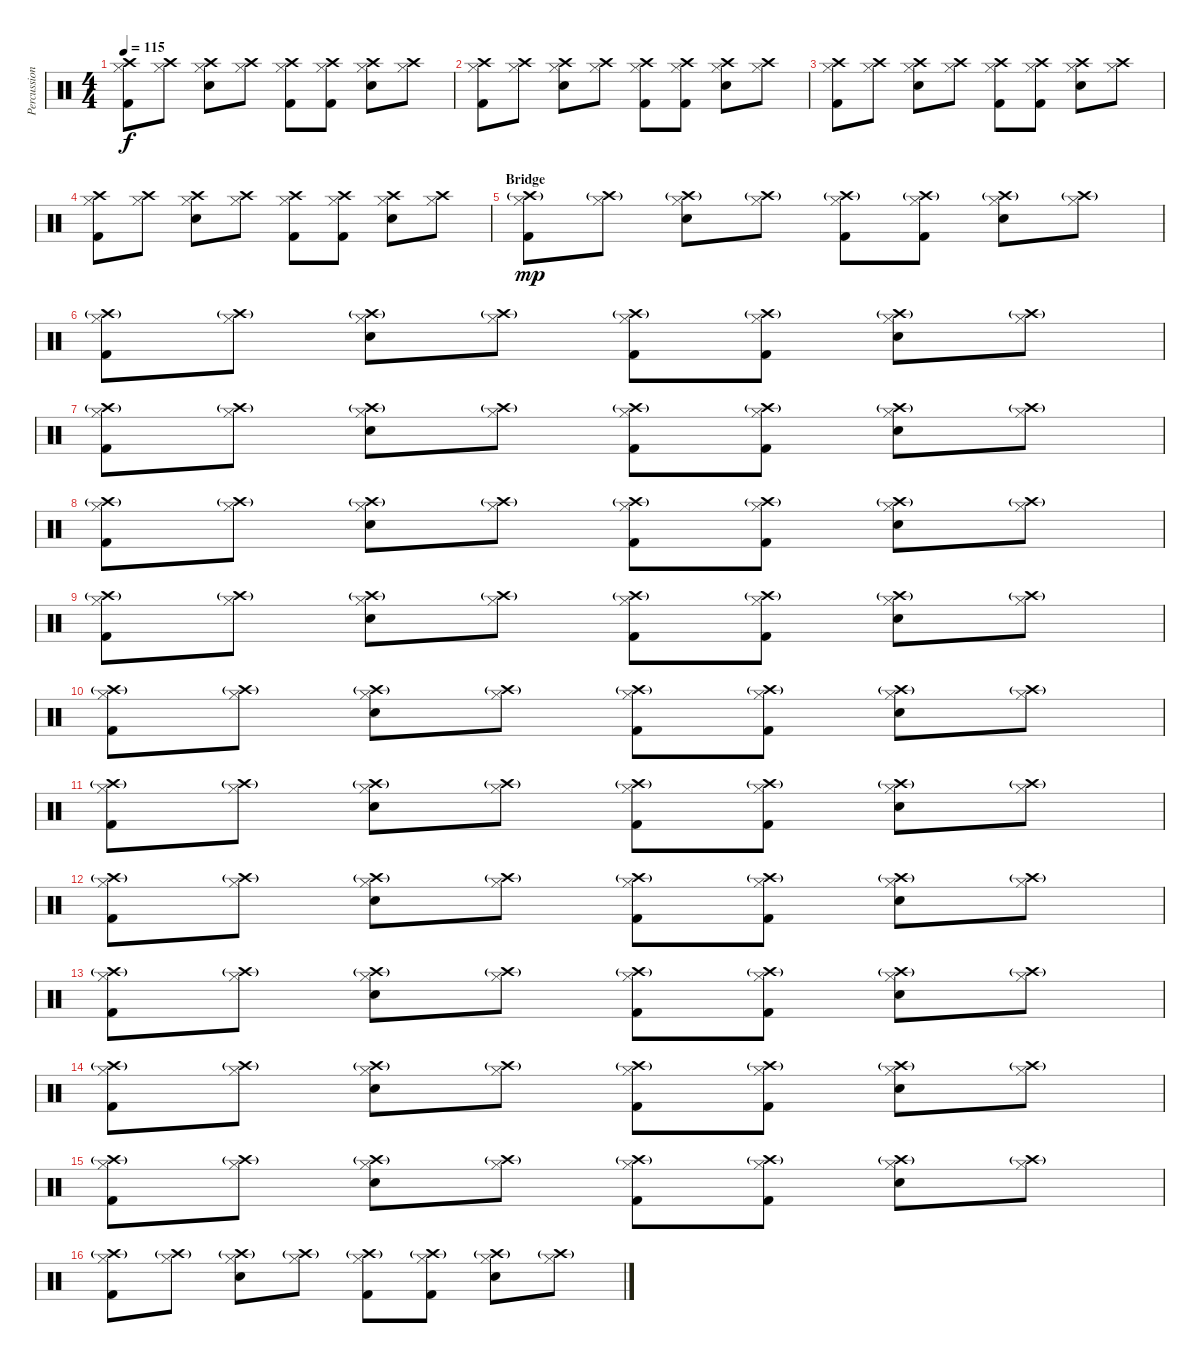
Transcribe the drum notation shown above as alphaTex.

\track ("Percussions" "Percussion") {instrument percussion}
\staff {score}
\articulation defaults
\ts (4 4)
\tempo 115
\clef neutral
\ks c
("Crash high (hit)" "Hi-Hat (closed)" "Kick (hit) 2").8{dy f} ("Crash high (hit)" "Hi-Hat (closed)").8 ("Crash high (hit)" "Hi-Hat (closed)" "Electric Snare (hit)").8 ("Crash high (hit)" "Hi-Hat (closed)").8 ("Crash high (hit)" "Hi-Hat (closed)" "Kick (hit) 2").8 ("Crash high (hit)" "Hi-Hat (closed)" "Kick (hit) 2").8 ("Crash high (hit)" "Hi-Hat (closed)" "Electric Snare (hit)").8 ("Crash high (hit)" "Hi-Hat (closed)").8 |
("Crash high (hit)" "Hi-Hat (closed)" "Kick (hit) 2").8 ("Crash high (hit)" "Hi-Hat (closed)").8 ("Crash high (hit)" "Hi-Hat (closed)" "Electric Snare (hit)").8 ("Crash high (hit)" "Hi-Hat (closed)").8 ("Crash high (hit)" "Hi-Hat (closed)" "Kick (hit) 2").8 ("Crash high (hit)" "Hi-Hat (closed)" "Kick (hit) 2").8 ("Crash high (hit)" "Hi-Hat (closed)" "Electric Snare (hit)").8 ("Crash high (hit)" "Hi-Hat (closed)").8 |
("Crash high (hit)" "Hi-Hat (closed)" "Kick (hit) 2").8 ("Crash high (hit)" "Hi-Hat (closed)").8 ("Crash high (hit)" "Hi-Hat (closed)" "Electric Snare (hit)").8 ("Crash high (hit)" "Hi-Hat (closed)").8 ("Crash high (hit)" "Hi-Hat (closed)" "Kick (hit) 2").8 ("Crash high (hit)" "Hi-Hat (closed)" "Kick (hit) 2").8 ("Crash high (hit)" "Hi-Hat (closed)" "Electric Snare (hit)").8 ("Crash high (hit)" "Hi-Hat (closed)").8 |
("Crash high (hit)" "Hi-Hat (closed)" "Kick (hit) 2").8 ("Crash high (hit)" "Hi-Hat (closed)").8 ("Crash high (hit)" "Hi-Hat (closed)" "Electric Snare (hit)").8 ("Crash high (hit)" "Hi-Hat (closed)").8 ("Crash high (hit)" "Hi-Hat (closed)" "Kick (hit) 2").8 ("Crash high (hit)" "Hi-Hat (closed)" "Kick (hit) 2").8 ("Crash high (hit)" "Hi-Hat (closed)" "Electric Snare (hit)").8 ("Crash high (hit)" "Hi-Hat (closed)").8 |
\section ("" "Bridge")
("Crash high (hit)"{g} "Hi-Hat (closed)" "Kick (hit) 2").8{dy mp} ("Crash high (hit)"{g} "Hi-Hat (closed)").8 ("Crash high (hit)"{g} "Hi-Hat (closed)" "Electric Snare (hit)").8 ("Crash high (hit)"{g} "Hi-Hat (closed)").8 ("Crash high (hit)"{g} "Hi-Hat (closed)" "Kick (hit) 2").8 ("Crash high (hit)"{g} "Hi-Hat (closed)" "Kick (hit) 2").8 ("Crash high (hit)"{g} "Hi-Hat (closed)" "Electric Snare (hit)").8 ("Crash high (hit)"{g} "Hi-Hat (closed)").8 |
("Crash high (hit)"{g} "Hi-Hat (closed)" "Kick (hit) 2").8 ("Crash high (hit)"{g} "Hi-Hat (closed)").8 ("Crash high (hit)"{g} "Hi-Hat (closed)" "Electric Snare (hit)").8 ("Crash high (hit)"{g} "Hi-Hat (closed)").8 ("Crash high (hit)"{g} "Hi-Hat (closed)" "Kick (hit) 2").8 ("Crash high (hit)"{g} "Hi-Hat (closed)" "Kick (hit) 2").8 ("Crash high (hit)"{g} "Hi-Hat (closed)" "Electric Snare (hit)").8 ("Crash high (hit)"{g} "Hi-Hat (closed)").8 |
("Crash high (hit)"{g} "Hi-Hat (closed)" "Kick (hit) 2").8 ("Crash high (hit)"{g} "Hi-Hat (closed)").8 ("Crash high (hit)"{g} "Hi-Hat (closed)" "Electric Snare (hit)").8 ("Crash high (hit)"{g} "Hi-Hat (closed)").8 ("Crash high (hit)"{g} "Hi-Hat (closed)" "Kick (hit) 2").8 ("Crash high (hit)"{g} "Hi-Hat (closed)" "Kick (hit) 2").8 ("Crash high (hit)"{g} "Hi-Hat (closed)" "Electric Snare (hit)").8 ("Crash high (hit)"{g} "Hi-Hat (closed)").8 |
("Crash high (hit)"{g} "Hi-Hat (closed)" "Kick (hit) 2").8 ("Crash high (hit)"{g} "Hi-Hat (closed)").8 ("Crash high (hit)"{g} "Hi-Hat (closed)" "Electric Snare (hit)").8 ("Crash high (hit)"{g} "Hi-Hat (closed)").8 ("Crash high (hit)"{g} "Hi-Hat (closed)" "Kick (hit) 2").8 ("Crash high (hit)"{g} "Hi-Hat (closed)" "Kick (hit) 2").8 ("Crash high (hit)"{g} "Hi-Hat (closed)" "Electric Snare (hit)").8 ("Crash high (hit)"{g} "Hi-Hat (closed)").8 |
("Crash high (hit)"{g} "Hi-Hat (closed)" "Kick (hit) 2").8 ("Crash high (hit)"{g} "Hi-Hat (closed)").8 ("Crash high (hit)"{g} "Hi-Hat (closed)" "Electric Snare (hit)").8 ("Crash high (hit)"{g} "Hi-Hat (closed)").8 ("Crash high (hit)"{g} "Hi-Hat (closed)" "Kick (hit) 2").8 ("Crash high (hit)"{g} "Hi-Hat (closed)" "Kick (hit) 2").8 ("Crash high (hit)"{g} "Hi-Hat (closed)" "Electric Snare (hit)").8 ("Crash high (hit)"{g} "Hi-Hat (closed)").8 |
("Crash high (hit)"{g} "Hi-Hat (closed)" "Kick (hit) 2").8 ("Crash high (hit)"{g} "Hi-Hat (closed)").8 ("Crash high (hit)"{g} "Hi-Hat (closed)" "Electric Snare (hit)").8 ("Crash high (hit)"{g} "Hi-Hat (closed)").8 ("Crash high (hit)"{g} "Hi-Hat (closed)" "Kick (hit) 2").8 ("Crash high (hit)"{g} "Hi-Hat (closed)" "Kick (hit) 2").8 ("Crash high (hit)"{g} "Hi-Hat (closed)" "Electric Snare (hit)").8 ("Crash high (hit)"{g} "Hi-Hat (closed)").8 |
("Crash high (hit)"{g} "Hi-Hat (closed)" "Kick (hit) 2").8 ("Crash high (hit)"{g} "Hi-Hat (closed)").8 ("Crash high (hit)"{g} "Hi-Hat (closed)" "Electric Snare (hit)").8 ("Crash high (hit)"{g} "Hi-Hat (closed)").8 ("Crash high (hit)"{g} "Hi-Hat (closed)" "Kick (hit) 2").8 ("Crash high (hit)"{g} "Hi-Hat (closed)" "Kick (hit) 2").8 ("Crash high (hit)"{g} "Hi-Hat (closed)" "Electric Snare (hit)").8 ("Crash high (hit)"{g} "Hi-Hat (closed)").8 |
("Crash high (hit)"{g} "Hi-Hat (closed)" "Kick (hit) 2").8 ("Crash high (hit)"{g} "Hi-Hat (closed)").8 ("Crash high (hit)"{g} "Hi-Hat (closed)" "Electric Snare (hit)").8 ("Crash high (hit)"{g} "Hi-Hat (closed)").8 ("Crash high (hit)"{g} "Hi-Hat (closed)" "Kick (hit) 2").8 ("Crash high (hit)"{g} "Hi-Hat (closed)" "Kick (hit) 2").8 ("Crash high (hit)"{g} "Hi-Hat (closed)" "Electric Snare (hit)").8 ("Crash high (hit)"{g} "Hi-Hat (closed)").8 |
("Crash high (hit)"{g} "Hi-Hat (closed)" "Kick (hit) 2").8 ("Crash high (hit)"{g} "Hi-Hat (closed)").8 ("Crash high (hit)"{g} "Hi-Hat (closed)" "Electric Snare (hit)").8 ("Crash high (hit)"{g} "Hi-Hat (closed)").8 ("Crash high (hit)"{g} "Hi-Hat (closed)" "Kick (hit) 2").8 ("Crash high (hit)"{g} "Hi-Hat (closed)" "Kick (hit) 2").8 ("Crash high (hit)"{g} "Hi-Hat (closed)" "Electric Snare (hit)").8 ("Crash high (hit)"{g} "Hi-Hat (closed)").8 |
("Crash high (hit)"{g} "Hi-Hat (closed)" "Kick (hit) 2").8 ("Crash high (hit)"{g} "Hi-Hat (closed)").8 ("Crash high (hit)"{g} "Hi-Hat (closed)" "Electric Snare (hit)").8 ("Crash high (hit)"{g} "Hi-Hat (closed)").8 ("Crash high (hit)"{g} "Hi-Hat (closed)" "Kick (hit) 2").8 ("Crash high (hit)"{g} "Hi-Hat (closed)" "Kick (hit) 2").8 ("Crash high (hit)"{g} "Hi-Hat (closed)" "Electric Snare (hit)").8 ("Crash high (hit)"{g} "Hi-Hat (closed)").8 |
("Crash high (hit)"{g} "Hi-Hat (closed)" "Kick (hit) 2").8 ("Crash high (hit)"{g} "Hi-Hat (closed)").8 ("Crash high (hit)"{g} "Hi-Hat (closed)" "Electric Snare (hit)").8 ("Crash high (hit)"{g} "Hi-Hat (closed)").8 ("Crash high (hit)"{g} "Hi-Hat (closed)" "Kick (hit) 2").8 ("Crash high (hit)"{g} "Hi-Hat (closed)" "Kick (hit) 2").8 ("Crash high (hit)"{g} "Hi-Hat (closed)" "Electric Snare (hit)").8 ("Crash high (hit)"{g} "Hi-Hat (closed)").8 |
("Crash high (hit)"{g} "Hi-Hat (closed)" "Kick (hit) 2").8 ("Crash high (hit)"{g} "Hi-Hat (closed)").8 ("Crash high (hit)"{g} "Hi-Hat (closed)" "Electric Snare (hit)").8 ("Crash high (hit)"{g} "Hi-Hat (closed)").8 ("Crash high (hit)"{g} "Hi-Hat (closed)" "Kick (hit) 2").8 ("Crash high (hit)"{g} "Hi-Hat (closed)" "Kick (hit) 2").8 ("Crash high (hit)"{g} "Hi-Hat (closed)" "Electric Snare (hit)").8 ("Crash high (hit)"{g} "Hi-Hat (closed)").8
